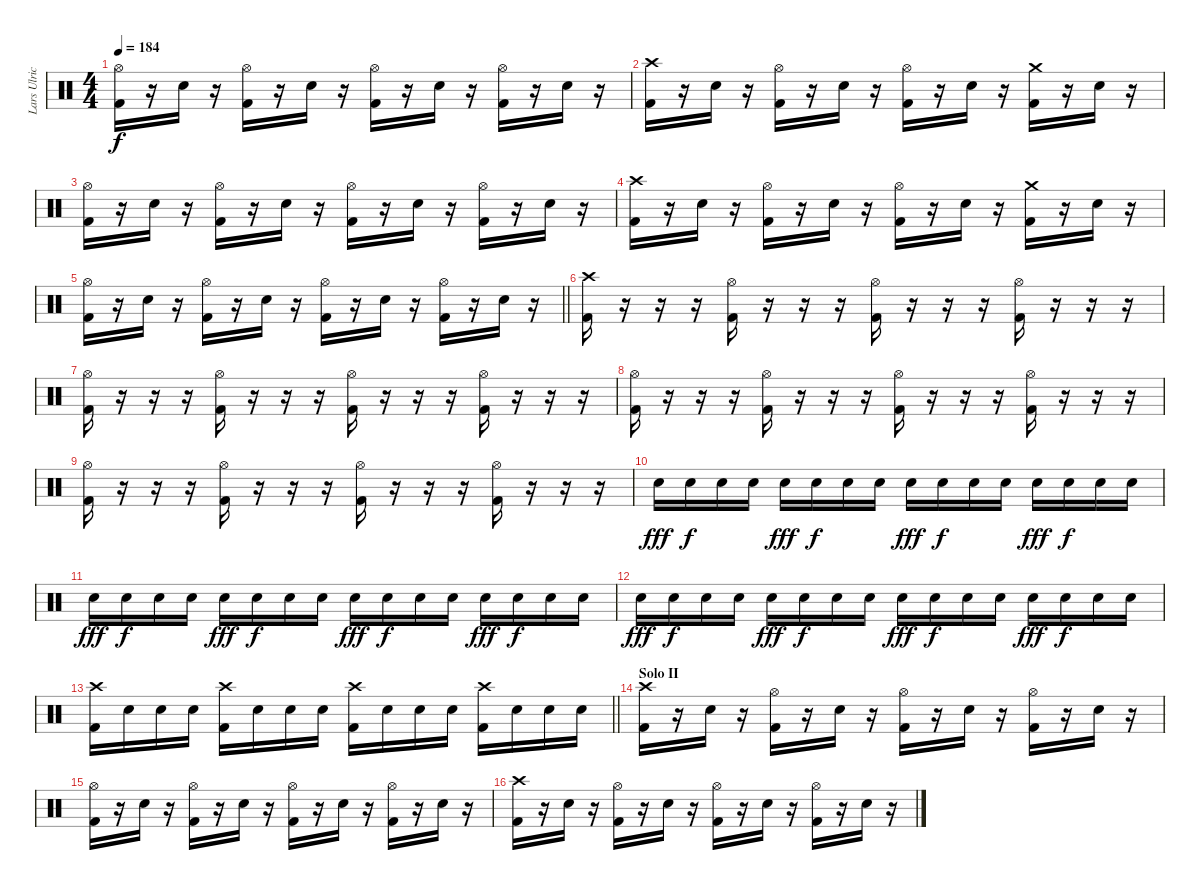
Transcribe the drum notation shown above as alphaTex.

\track ("Lars Ulrich" "Lars Ulric") {instrument percussion}
\staff {score}
\articulation defaults
\ts (4 4)
\tempo 184
\clef neutral
\ks c
("Hi-Hat (open)" "Kick (hit) 2").16{dy f} r.16 "Electric Snare (hit)".16 r.16 ("Hi-Hat (open)" "Kick (hit) 2").16 r.16 "Electric Snare (hit)".16 r.16 ("Hi-Hat (open)" "Kick (hit) 2").16 r.16 "Electric Snare (hit)".16 r.16 ("Hi-Hat (open)" "Kick (hit) 2").16 r.16 "Electric Snare (hit)".16 r.16 |
("Crash high (hit)" "Kick (hit) 2").16 r.16 "Electric Snare (hit)".16 r.16 ("Hi-Hat (open)" "Kick (hit) 2").16 r.16 "Electric Snare (hit)".16 r.16 ("Hi-Hat (open)" "Kick (hit) 2").16 r.16 "Electric Snare (hit)".16 r.16 ("Crash medium (hit)" "Kick (hit) 2").16 r.16 "Electric Snare (hit)".16 r.16 |
("Hi-Hat (open)" "Kick (hit) 2").16 r.16 "Electric Snare (hit)".16 r.16 ("Hi-Hat (open)" "Kick (hit) 2").16 r.16 "Electric Snare (hit)".16 r.16 ("Hi-Hat (open)" "Kick (hit) 2").16 r.16 "Electric Snare (hit)".16 r.16 ("Hi-Hat (open)" "Kick (hit) 2").16 r.16 "Electric Snare (hit)".16 r.16 |
("Crash high (hit)" "Kick (hit) 2").16 r.16 "Electric Snare (hit)".16 r.16 ("Hi-Hat (open)" "Kick (hit) 2").16 r.16 "Electric Snare (hit)".16 r.16 ("Hi-Hat (open)" "Kick (hit) 2").16 r.16 "Electric Snare (hit)".16 r.16 ("Crash medium (hit)" "Kick (hit) 2").16 r.16 "Electric Snare (hit)".16 r.16 |
\barLineRight lightlight
("Hi-Hat (open)" "Kick (hit) 2").16 r.16 "Electric Snare (hit)".16 r.16 ("Hi-Hat (open)" "Kick (hit) 2").16 r.16 "Electric Snare (hit)".16 r.16 ("Hi-Hat (open)" "Kick (hit) 2").16 r.16 "Electric Snare (hit)".16 r.16 ("Hi-Hat (open)" "Kick (hit) 2").16 r.16 "Electric Snare (hit)".16 r.16 |
\section ("" "")
("Crash high (hit)" "Kick (hit) 2").16 r.16 r.16 r.16 ("Hi-Hat (open)" "Kick (hit) 2").16 r.16 r.16 r.16 ("Hi-Hat (open)" "Kick (hit) 2").16 r.16 r.16 r.16 ("Hi-Hat (open)" "Kick (hit) 2").16 r.16 r.16 r.16 |
("Hi-Hat (open)" "Kick (hit) 2").16 r.16 r.16 r.16 ("Hi-Hat (open)" "Kick (hit) 2").16 r.16 r.16 r.16 ("Hi-Hat (open)" "Kick (hit) 2").16 r.16 r.16 r.16 ("Hi-Hat (open)" "Kick (hit) 2").16 r.16 r.16 r.16 |
("Hi-Hat (open)" "Kick (hit) 2").16 r.16 r.16 r.16 ("Hi-Hat (open)" "Kick (hit) 2").16 r.16 r.16 r.16 ("Hi-Hat (open)" "Kick (hit) 2").16 r.16 r.16 r.16 ("Hi-Hat (open)" "Kick (hit) 2").16 r.16 r.16 r.16 |
("Hi-Hat (open)" "Kick (hit) 2").16 r.16 r.16 r.16 ("Hi-Hat (open)" "Kick (hit) 2").16 r.16 r.16 r.16 ("Hi-Hat (open)" "Kick (hit) 2").16 r.16 r.16 r.16 ("Hi-Hat (open)" "Kick (hit) 2").16 r.16 r.16 r.16 |
"Electric Snare (hit)".16{dy fff} "Electric Snare (hit)".16{dy f} "Electric Snare (hit)".16 "Electric Snare (hit)".16 "Electric Snare (hit)".16{dy fff} "Electric Snare (hit)".16{dy f} "Electric Snare (hit)".16 "Electric Snare (hit)".16 "Electric Snare (hit)".16{dy fff} "Electric Snare (hit)".16{dy f} "Electric Snare (hit)".16 "Electric Snare (hit)".16 "Electric Snare (hit)".16{dy fff} "Electric Snare (hit)".16{dy f} "Electric Snare (hit)".16 "Electric Snare (hit)".16 |
"Electric Snare (hit)".16{dy fff} "Electric Snare (hit)".16{dy f} "Electric Snare (hit)".16 "Electric Snare (hit)".16 "Electric Snare (hit)".16{dy fff} "Electric Snare (hit)".16{dy f} "Electric Snare (hit)".16 "Electric Snare (hit)".16 "Electric Snare (hit)".16{dy fff} "Electric Snare (hit)".16{dy f} "Electric Snare (hit)".16 "Electric Snare (hit)".16 "Electric Snare (hit)".16{dy fff} "Electric Snare (hit)".16{dy f} "Electric Snare (hit)".16 "Electric Snare (hit)".16 |
"Electric Snare (hit)".16{dy fff} "Electric Snare (hit)".16{dy f} "Electric Snare (hit)".16 "Electric Snare (hit)".16 "Electric Snare (hit)".16{dy fff} "Electric Snare (hit)".16{dy f} "Electric Snare (hit)".16 "Electric Snare (hit)".16 "Electric Snare (hit)".16{dy fff} "Electric Snare (hit)".16{dy f} "Electric Snare (hit)".16 "Electric Snare (hit)".16 "Electric Snare (hit)".16{dy fff} "Electric Snare (hit)".16{dy f} "Electric Snare (hit)".16 "Electric Snare (hit)".16 |
\barLineRight lightlight
("Crash high (hit)" "Kick (hit) 2").16 "Electric Snare (hit)".16 "Electric Snare (hit)".16 "Electric Snare (hit)".16 ("Crash high (hit)" "Kick (hit) 2").16 "Electric Snare (hit)".16 "Electric Snare (hit)".16 "Electric Snare (hit)".16 ("Crash high (hit)" "Kick (hit) 2").16 "Electric Snare (hit)".16 "Electric Snare (hit)".16 "Electric Snare (hit)".16 ("Crash high (hit)" "Kick (hit) 2").16 "Electric Snare (hit)".16 "Electric Snare (hit)".16 "Electric Snare (hit)".16 |
\section ("" "Solo II")
("Crash high (hit)" "Kick (hit) 2").16 r.16 "Electric Snare (hit)".16 r.16 ("Hi-Hat (open)" "Kick (hit) 2").16 r.16 "Electric Snare (hit)".16 r.16 ("Hi-Hat (open)" "Kick (hit) 2").16 r.16 "Electric Snare (hit)".16 r.16 ("Hi-Hat (open)" "Kick (hit) 2").16 r.16 "Electric Snare (hit)".16 r.16 |
("Hi-Hat (open)" "Kick (hit) 2").16 r.16 "Electric Snare (hit)".16 r.16 ("Hi-Hat (open)" "Kick (hit) 2").16 r.16 "Electric Snare (hit)".16 r.16 ("Hi-Hat (open)" "Kick (hit) 2").16 r.16 "Electric Snare (hit)".16 r.16 ("Hi-Hat (open)" "Kick (hit) 2").16 r.16 "Electric Snare (hit)".16 r.16 |
("Crash high (hit)" "Kick (hit) 2").16 r.16 "Electric Snare (hit)".16 r.16 ("Hi-Hat (open)" "Kick (hit) 2").16 r.16 "Electric Snare (hit)".16 r.16 ("Hi-Hat (open)" "Kick (hit) 2").16 r.16 "Electric Snare (hit)".16 r.16 ("Hi-Hat (open)" "Kick (hit) 2").16 r.16 "Electric Snare (hit)".16 r.16
